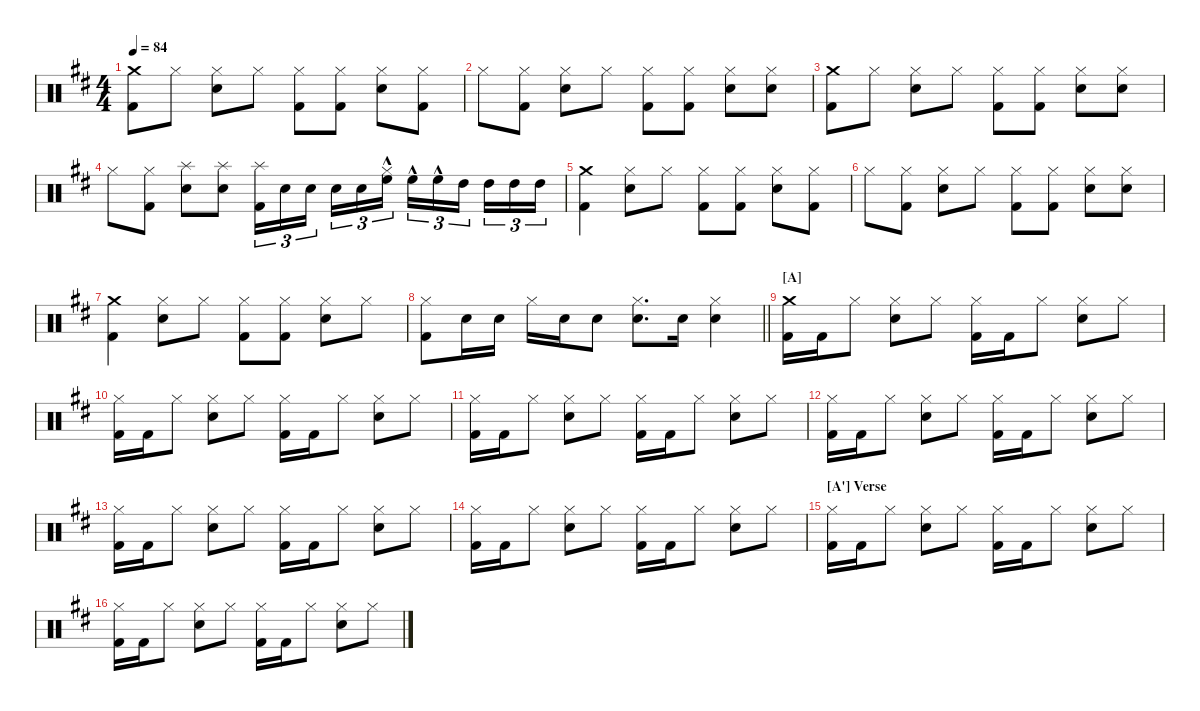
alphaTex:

\hideDynamics
\bracketExtendMode nobrackets
\singleTrackTrackNamePolicy hidden
\multiTrackTrackNamePolicy hidden
\otherSystemsTrackNameOrientation horizontal
\track ("Drumkit" "Drums") {instrument percussion}
\staff {score}
\articulation defaults
\ts (4 4)
\tempo 84
\clef neutral
\ks d
("Kick (hit) 2"{acc forcenatural} "Crash medium (hit)"{acc forcenatural}).8{dy f beam Down} "Hi-Hat (closed)"{acc forcenatural}.8{beam Down} ("Snare (hit) 2"{acc forcenatural} "Hi-Hat (closed)"{acc forcenatural}).8{beam Down} "Hi-Hat (closed)"{acc forcenatural}.8{beam Down} ("Kick (hit) 2"{acc forcenatural} "Hi-Hat (closed)"{acc forcenatural}).8{beam Down} ("Kick (hit) 2"{acc forcenatural} "Hi-Hat (closed)"{acc forcenatural}).8{beam Down} ("Snare (hit) 2"{acc forcenatural} "Hi-Hat (closed)"{acc forcenatural}).8{beam Down} ("Kick (hit) 2"{acc forcenatural} "Hi-Hat (closed)"{acc forcenatural}).8{beam Down} |
"Hi-Hat (closed)"{acc forcenatural}.8{beam Down} ("Kick (hit) 2"{acc forcenatural} "Hi-Hat (closed)"{acc forcenatural}).8{beam Down} ("Snare (hit) 2"{acc forcenatural} "Hi-Hat (closed)"{acc forcenatural}).8{beam Down} "Hi-Hat (closed)"{acc forcenatural}.8{beam Down} ("Kick (hit) 2"{acc forcenatural} "Hi-Hat (closed)"{acc forcenatural}).8{beam Down} ("Kick (hit) 2"{acc forcenatural} "Hi-Hat (closed)"{acc forcenatural}).8{beam Down} ("Snare (hit) 2"{acc forcenatural} "Hi-Hat (closed)"{acc forcenatural}).8{beam Down} ("Snare (hit) 2"{acc forcenatural} "Hi-Hat (closed)"{acc forcenatural}).8{beam Down} |
("Kick (hit) 2"{acc forcenatural} "Crash medium (hit)"{acc forcenatural}).8{beam Down} "Hi-Hat (closed)"{acc forcenatural}.8{beam Down} ("Snare (hit) 2"{acc forcenatural} "Hi-Hat (closed)"{acc forcenatural}).8{beam Down} "Hi-Hat (closed)"{acc forcenatural}.8{beam Down} ("Kick (hit) 2"{acc forcenatural} "Hi-Hat (closed)"{acc forcenatural}).8{beam Down} ("Kick (hit) 2"{acc forcenatural} "Hi-Hat (closed)"{acc forcenatural}).8{beam Down} ("Snare (hit) 2"{acc forcenatural} "Hi-Hat (closed)"{acc forcenatural}).8{beam Down} ("Snare (hit) 2"{acc forcenatural} "Hi-Hat (closed)"{acc forcenatural}).8{beam Down} |
"Hi-Hat (closed)"{acc forcenatural}.8{beam Down} ("Kick (hit) 2"{acc forcenatural} "Hi-Hat (closed)"{acc forcenatural}).8{beam Down} ("Snare (hit) 2"{acc forcenatural} "Splash (hit)"{acc forcenatural}).8{beam Down} ("Snare (hit) 2"{acc forcenatural} "Splash (hit)"{acc forcenatural}).8{beam Down} ("Kick (hit) 2"{acc forcenatural} "Splash (hit)"{acc forcenatural}).16{tu (3 2) beam Down} "Snare (hit) 2"{acc forcenatural}.16{tu (3 2) beam Down} "Snare (hit) 2"{acc forcenatural}.16{tu (3 2) beam Down} "Snare (hit) 2"{acc forcenatural}.16{tu (3 2) beam Down} "Snare (hit) 2"{acc forcenatural}.16{tu (3 2) beam Down} ("High Floor Tom (hit)"{hac acc forcenatural} "Hi-Hat (closed)"{hac acc forcenatural}).16{tu (3 2) beam Down} "High Floor Tom (hit)"{hac acc forcenatural}.16{tu (3 2) beam Down} "High Floor Tom (hit)"{hac acc forcenatural}.16{tu (3 2) beam Down} "High Tom (hit)"{acc forcenatural}.16{tu (3 2) beam Down} "High Tom (hit)"{acc forcenatural}.16{tu (3 2) beam Down} "High Tom (hit)"{acc forcenatural}.16{tu (3 2) beam Down} "High Tom (hit)"{acc forcenatural}.16{tu (3 2) beam Down} |
("Kick (hit) 2"{acc forcenatural} "Crash medium (hit)"{acc forcenatural}).4{beam Down} ("Snare (hit) 2"{acc forcenatural} "Hi-Hat (closed)"{acc forcenatural}).8{beam Down} "Hi-Hat (closed)"{acc forcenatural}.8{beam Down} ("Kick (hit) 2"{acc forcenatural} "Hi-Hat (closed)"{acc forcenatural}).8{beam Down} ("Kick (hit) 2"{acc forcenatural} "Hi-Hat (closed)"{acc forcenatural}).8{beam Down} ("Snare (hit) 2"{acc forcenatural} "Hi-Hat (closed)"{acc forcenatural}).8{beam Down} ("Kick (hit) 2"{acc forcenatural} "Hi-Hat (closed)"{acc forcenatural}).8{beam Down} |
"Hi-Hat (closed)"{acc forcenatural}.8{beam Down} ("Kick (hit) 2"{acc forcenatural} "Hi-Hat (closed)"{acc forcenatural}).8{beam Down} ("Snare (hit) 2"{acc forcenatural} "Hi-Hat (closed)"{acc forcenatural}).8{beam Down} "Hi-Hat (closed)"{acc forcenatural}.8{beam Down} ("Kick (hit) 2"{acc forcenatural} "Hi-Hat (closed)"{acc forcenatural}).8{beam Down} ("Kick (hit) 2"{acc forcenatural} "Hi-Hat (closed)"{acc forcenatural}).8{beam Down} ("Snare (hit) 2"{acc forcenatural} "Hi-Hat (closed)"{acc forcenatural}).8{beam Down} ("Snare (hit) 2"{acc forcenatural} "Hi-Hat (closed)"{acc forcenatural}).8{beam Down} |
("Kick (hit) 2"{acc forcenatural} "Crash medium (hit)"{acc forcenatural}).4{beam Down} ("Snare (hit) 2"{acc forcenatural} "Hi-Hat (closed)"{acc forcenatural}).8{beam Down} "Hi-Hat (closed)"{acc forcenatural}.8{beam Down} ("Kick (hit) 2"{acc forcenatural} "Hi-Hat (closed)"{acc forcenatural}).8{beam Down} ("Kick (hit) 2"{acc forcenatural} "Hi-Hat (closed)"{acc forcenatural}).8{beam Down} ("Snare (hit) 2"{acc forcenatural} "Hi-Hat (closed)"{acc forcenatural}).8{beam Down} "Hi-Hat (closed)"{acc forcenatural}.8{beam Down} |
\barLineRight lightlight
("Kick (hit) 2"{acc forcenatural} "Hi-Hat (closed)"{acc forcenatural}).8{beam Down} "Snare (hit) 2"{acc forcenatural}.16{beam Down} "Snare (hit) 2"{acc forcenatural}.16{beam Down} "Hi-Hat (closed)"{acc forcenatural}.16{beam Down} "Snare (hit) 2"{acc forcenatural}.16{beam Down} "Snare (hit) 2"{acc forcenatural}.8{beam Down} ("Snare (hit) 2"{acc forcenatural} "Hi-Hat (closed)"{acc forcenatural}).8{d beam Down} "Snare (hit) 2"{acc forcenatural}.16{beam Down} ("Snare (hit) 2"{acc forcenatural} "Hi-Hat (closed)"{acc forcenatural}).4{beam Down} |
\section ("A" "")
("Kick (hit) 2"{acc forcenatural} "Crash medium (hit)"{acc forcenatural}).16{beam Down} "Kick (hit) 2"{acc forcenatural}.16{beam Down} "Hi-Hat (closed)"{acc forcenatural}.8{beam Down} ("Snare (hit) 2"{acc forcenatural} "Hi-Hat (closed)"{acc forcenatural}).8{beam Down} "Hi-Hat (closed)"{acc forcenatural}.8{beam Down} ("Kick (hit) 2"{acc forcenatural} "Hi-Hat (closed)"{acc forcenatural}).16{beam Down} "Kick (hit) 2"{acc forcenatural}.16{beam Down} "Hi-Hat (closed)"{acc forcenatural}.8{beam Down} ("Snare (hit) 2"{acc forcenatural} "Hi-Hat (closed)"{acc forcenatural}).8{beam Down} "Hi-Hat (closed)"{acc forcenatural}.8{beam Down} |
("Kick (hit) 2"{acc forcenatural} "Hi-Hat (closed)"{acc forcenatural}).16{beam Down} "Kick (hit) 2"{acc forcenatural}.16{beam Down} "Hi-Hat (closed)"{acc forcenatural}.8{beam Down} ("Snare (hit) 2"{acc forcenatural} "Hi-Hat (closed)"{acc forcenatural}).8{beam Down} "Hi-Hat (closed)"{acc forcenatural}.8{beam Down} ("Kick (hit) 2"{acc forcenatural} "Hi-Hat (closed)"{acc forcenatural}).16{beam Down} "Kick (hit) 2"{acc forcenatural}.16{beam Down} "Hi-Hat (closed)"{acc forcenatural}.8{beam Down} ("Snare (hit) 2"{acc forcenatural} "Hi-Hat (closed)"{acc forcenatural}).8{beam Down} "Hi-Hat (closed)"{acc forcenatural}.8{beam Down} |
("Kick (hit) 2"{acc forcenatural} "Hi-Hat (closed)"{acc forcenatural}).16{beam Down} "Kick (hit) 2"{acc forcenatural}.16{beam Down} "Hi-Hat (closed)"{acc forcenatural}.8{beam Down} ("Snare (hit) 2"{acc forcenatural} "Hi-Hat (closed)"{acc forcenatural}).8{beam Down} "Hi-Hat (closed)"{acc forcenatural}.8{beam Down} ("Kick (hit) 2"{acc forcenatural} "Hi-Hat (closed)"{acc forcenatural}).16{beam Down} "Kick (hit) 2"{acc forcenatural}.16{beam Down} "Hi-Hat (closed)"{acc forcenatural}.8{beam Down} ("Snare (hit) 2"{acc forcenatural} "Hi-Hat (closed)"{acc forcenatural}).8{beam Down} "Hi-Hat (closed)"{acc forcenatural}.8{beam Down} |
("Kick (hit) 2"{acc forcenatural} "Hi-Hat (closed)"{acc forcenatural}).16{beam Down} "Kick (hit) 2"{acc forcenatural}.16{beam Down} "Hi-Hat (closed)"{acc forcenatural}.8{beam Down} ("Snare (hit) 2"{acc forcenatural} "Hi-Hat (closed)"{acc forcenatural}).8{beam Down} "Hi-Hat (closed)"{acc forcenatural}.8{beam Down} ("Kick (hit) 2"{acc forcenatural} "Hi-Hat (closed)"{acc forcenatural}).16{beam Down} "Kick (hit) 2"{acc forcenatural}.16{beam Down} "Hi-Hat (closed)"{acc forcenatural}.8{beam Down} ("Snare (hit) 2"{acc forcenatural} "Hi-Hat (closed)"{acc forcenatural}).8{beam Down} "Hi-Hat (closed)"{acc forcenatural}.8{beam Down} |
("Kick (hit) 2"{acc forcenatural} "Hi-Hat (closed)"{acc forcenatural}).16{beam Down} "Kick (hit) 2"{acc forcenatural}.16{beam Down} "Hi-Hat (closed)"{acc forcenatural}.8{beam Down} ("Snare (hit) 2"{acc forcenatural} "Hi-Hat (closed)"{acc forcenatural}).8{beam Down} "Hi-Hat (closed)"{acc forcenatural}.8{beam Down} ("Kick (hit) 2"{acc forcenatural} "Hi-Hat (closed)"{acc forcenatural}).16{beam Down} "Kick (hit) 2"{acc forcenatural}.16{beam Down} "Hi-Hat (closed)"{acc forcenatural}.8{beam Down} ("Snare (hit) 2"{acc forcenatural} "Hi-Hat (closed)"{acc forcenatural}).8{beam Down} "Hi-Hat (closed)"{acc forcenatural}.8{beam Down} |
("Kick (hit) 2"{acc forcenatural} "Hi-Hat (closed)"{acc forcenatural}).16{beam Down} "Kick (hit) 2"{acc forcenatural}.16{beam Down} "Hi-Hat (closed)"{acc forcenatural}.8{beam Down} ("Snare (hit) 2"{acc forcenatural} "Hi-Hat (closed)"{acc forcenatural}).8{beam Down} "Hi-Hat (closed)"{acc forcenatural}.8{beam Down} ("Kick (hit) 2"{acc forcenatural} "Hi-Hat (closed)"{acc forcenatural}).16{beam Down} "Kick (hit) 2"{acc forcenatural}.16{beam Down} "Hi-Hat (closed)"{acc forcenatural}.8{beam Down} ("Snare (hit) 2"{acc forcenatural} "Hi-Hat (closed)"{acc forcenatural}).8{beam Down} "Hi-Hat (closed)"{acc forcenatural}.8{beam Down} |
\section ("A'" "Verse")
("Kick (hit) 2"{acc forcenatural} "Hi-Hat (closed)"{acc forcenatural}).16{beam Down} "Kick (hit) 2"{acc forcenatural}.16{beam Down} "Hi-Hat (closed)"{acc forcenatural}.8{beam Down} ("Snare (hit) 2"{acc forcenatural} "Hi-Hat (closed)"{acc forcenatural}).8{beam Down} "Hi-Hat (closed)"{acc forcenatural}.8{beam Down} ("Kick (hit) 2"{acc forcenatural} "Hi-Hat (closed)"{acc forcenatural}).16{beam Down} "Kick (hit) 2"{acc forcenatural}.16{beam Down} "Hi-Hat (closed)"{acc forcenatural}.8{beam Down} ("Snare (hit) 2"{acc forcenatural} "Hi-Hat (closed)"{acc forcenatural}).8{beam Down} "Hi-Hat (closed)"{acc forcenatural}.8{beam Down} |
("Kick (hit) 2"{acc forcenatural} "Hi-Hat (closed)"{acc forcenatural}).16{beam Down} "Kick (hit) 2"{acc forcenatural}.16{beam Down} "Hi-Hat (closed)"{acc forcenatural}.8{beam Down} ("Snare (hit) 2"{acc forcenatural} "Hi-Hat (closed)"{acc forcenatural}).8{beam Down} "Hi-Hat (closed)"{acc forcenatural}.8{beam Down} ("Kick (hit) 2"{acc forcenatural} "Hi-Hat (closed)"{acc forcenatural}).16{beam Down} "Kick (hit) 2"{acc forcenatural}.16{beam Down} "Hi-Hat (closed)"{acc forcenatural}.8{beam Down} ("Snare (hit) 2"{acc forcenatural} "Hi-Hat (closed)"{acc forcenatural}).8{beam Down} "Hi-Hat (closed)"{acc forcenatural}.8{beam Down}
